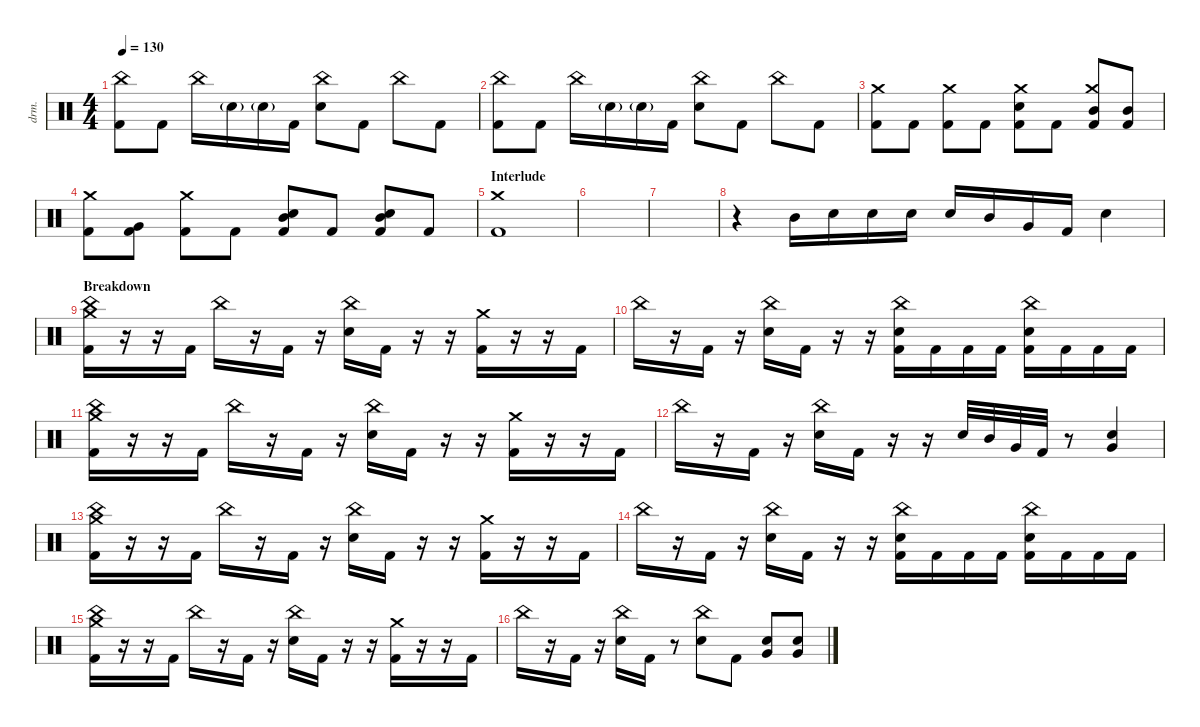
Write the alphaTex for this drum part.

\defaultSystemsLayout 4
\hideDynamics
\bracketExtendMode nobrackets
\track ("Drums - Šimon" "drm.") {instrument percussion}
\staff {score}
\articulation defaults
\ts (4 4)
\tempo 130
\clef neutral
\ks c
("Kick (hit) 2" "China (hit)").8{dy ff beam Down} "Kick (hit) 2".8{beam Down} "China (hit)".16{beam Down} "Snare (hit) 2"{g}.16{beam Down} "Snare (hit) 2"{g}.16{beam Down} "Kick (hit) 2".16{beam Down} ("Snare (hit) 2" "China (hit)").8{beam Down} "Kick (hit) 2".8{beam Down} "China (hit)".8{beam Down} "Kick (hit) 2".8{beam Down} |
("Kick (hit) 2" "China (hit)").8{beam Down} "Kick (hit) 2".8{beam Down} "China (hit)".16{beam Down} "Snare (hit) 2"{g}.16{beam Down} "Snare (hit) 2"{g}.16{beam Down} "Kick (hit) 2".16{beam Down} ("Snare (hit) 2" "China (hit)").8{beam Down} "Kick (hit) 2".8{beam Down} "China (hit)".8{beam Down} "Kick (hit) 2".8{beam Down} |
("Kick (hit) 2" "Crash medium (hit)").8{beam Down} "Kick (hit) 2".8{beam Down} ("Kick (hit) 2" "Crash medium (hit)").8{beam Down} "Kick (hit) 2".8{beam Down} ("Kick (hit) 2" "Crash medium (hit)" "Snare (hit) 2").8{beam Down} "Kick (hit) 2".8{beam Down} ("Kick (hit) 2" "Crash medium (hit)" "Mid Tom (hit)").8{beam Up} ("Kick (hit) 2" "Mid Tom (hit)").8{beam Up} |
("Kick (hit) 2" "Crash medium (hit)").8{beam Down} ("Kick (hit) 2" "Very Low Tom (hit)").8{beam Down} ("Kick (hit) 2" "Crash medium (hit)").8{beam Down} "Kick (hit) 2".8{beam Down} ("Kick (hit) 2" "Snare (hit) 2" "Mid Tom (hit)").8{beam Up} "Kick (hit) 2".8{beam Up} ("Kick (hit) 2" "Mid Tom (hit)" "Snare (hit) 2").8{beam Up} "Kick (hit) 2".8{beam Up} |
\section ("" "Interlude")
("Kick (hit) 2" "Crash medium (hit)").1{beam Down} |
|
|
r.4{beam Down} "Mid Tom (hit)".16{beam Down} "Snare (hit) 2".16{dy mp beam Down} "Snare (hit) 2".16{beam Down} "Snare (hit) 2".16{beam Down} "Snare (hit) 2".16{dy ff beam Up} "Mid Tom (hit)".16{beam Up} "Very Low Tom (hit)".16{beam Up} "Kick (hit) 2".16{beam Up} "Snare (hit) 2".4{beam Down} |
\section ("" "Breakdown")
("Kick (hit) 2" "China (hit)" "Crash medium (hit)").16{beam Down} r.16{beam Down} r.16{beam Down} "Kick (hit) 2".16{beam Down} "China (hit)".16{beam Down} r.16{beam Down} "Kick (hit) 2".16{beam Down} r.16{beam Down} ("China (hit)" "Snare (hit) 2").16{beam Down} "Kick (hit) 2".16{beam Down} r.16{beam Down} r.16{beam Down} ("Kick (hit) 2" "Crash medium (hit)").16{beam Down} r.16{beam Down} r.16{beam Down} "Kick (hit) 2".16{beam Down} |
"China (hit)".16{beam Down} r.16{beam Down} "Kick (hit) 2".16{beam Down} r.16{beam Down} ("China (hit)" "Snare (hit) 2").16{beam Down} "Kick (hit) 2".16{beam Down} r.16{beam Down} r.16{beam Down} ("Kick (hit) 2" "China (hit)" "Snare (hit) 2").16{beam Down} "Kick (hit) 2".16{beam Down} "Kick (hit) 2".16{beam Down} "Kick (hit) 2".16{beam Down} ("Kick (hit) 2" "China (hit)" "Snare (hit) 2").16{beam Down} "Kick (hit) 2".16{beam Down} "Kick (hit) 2".16{beam Down} "Kick (hit) 2".16{beam Down} |
("Kick (hit) 2" "China (hit)" "Crash medium (hit)").16{beam Down} r.16{beam Down} r.16{beam Down} "Kick (hit) 2".16{beam Down} "China (hit)".16{beam Down} r.16{beam Down} "Kick (hit) 2".16{beam Down} r.16{beam Down} ("China (hit)" "Snare (hit) 2").16{beam Down} "Kick (hit) 2".16{beam Down} r.16{beam Down} r.16{beam Down} ("Kick (hit) 2" "Crash medium (hit)").16{beam Down} r.16{beam Down} r.16{beam Down} "Kick (hit) 2".16{beam Down} |
"China (hit)".16{beam Down} r.16{beam Down} "Kick (hit) 2".16{beam Down} r.16{beam Down} ("China (hit)" "Snare (hit) 2").16{beam Down} "Kick (hit) 2".16{beam Down} r.16{beam Down} r.16{beam Down} "Snare (hit) 2".32{beam Up} "Mid Tom (hit)".32{beam Up} "Very Low Tom (hit)".32{beam Up} "Kick (hit) 2".32{beam Up} r.8{beam Down} ("Snare (hit) 2" "Very Low Tom (hit)").4{beam Up} |
("Kick (hit) 2" "China (hit)" "Crash medium (hit)").16{beam Down} r.16{beam Down} r.16{beam Down} "Kick (hit) 2".16{beam Down} "China (hit)".16{beam Down} r.16{beam Down} "Kick (hit) 2".16{beam Down} r.16{beam Down} ("China (hit)" "Snare (hit) 2").16{beam Down} "Kick (hit) 2".16{beam Down} r.16{beam Down} r.16{beam Down} ("Kick (hit) 2" "Crash medium (hit)").16{beam Down} r.16{beam Down} r.16{beam Down} "Kick (hit) 2".16{beam Down} |
"China (hit)".16{beam Down} r.16{beam Down} "Kick (hit) 2".16{beam Down} r.16{beam Down} ("China (hit)" "Snare (hit) 2").16{beam Down} "Kick (hit) 2".16{beam Down} r.16{beam Down} r.16{beam Down} ("Kick (hit) 2" "China (hit)" "Snare (hit) 2").16{beam Down} "Kick (hit) 2".16{beam Down} "Kick (hit) 2".16{beam Down} "Kick (hit) 2".16{beam Down} ("Kick (hit) 2" "China (hit)" "Snare (hit) 2").16{beam Down} "Kick (hit) 2".16{beam Down} "Kick (hit) 2".16{beam Down} "Kick (hit) 2".16{beam Down} |
("Kick (hit) 2" "China (hit)" "Crash medium (hit)").16{beam Down} r.16{beam Down} r.16{beam Down} "Kick (hit) 2".16{beam Down} "China (hit)".16{beam Down} r.16{beam Down} "Kick (hit) 2".16{beam Down} r.16{beam Down} ("China (hit)" "Snare (hit) 2").16{beam Down} "Kick (hit) 2".16{beam Down} r.16{beam Down} r.16{beam Down} ("Kick (hit) 2" "Crash medium (hit)").16{beam Down} r.16{beam Down} r.16{beam Down} "Kick (hit) 2".16{beam Down} |
"China (hit)".16{beam Down} r.16{beam Down} "Kick (hit) 2".16{beam Down} r.16{beam Down} ("China (hit)" "Snare (hit) 2").16{beam Down} "Kick (hit) 2".16{beam Down} r.8{beam Down} ("Snare (hit) 2" "China (hit)").8{beam Down} "Kick (hit) 2".8{beam Down} ("Snare (hit) 2" "Very Low Tom (hit)").8{beam Up} ("Snare (hit) 2" "Very Low Tom (hit)").8{beam Up}
